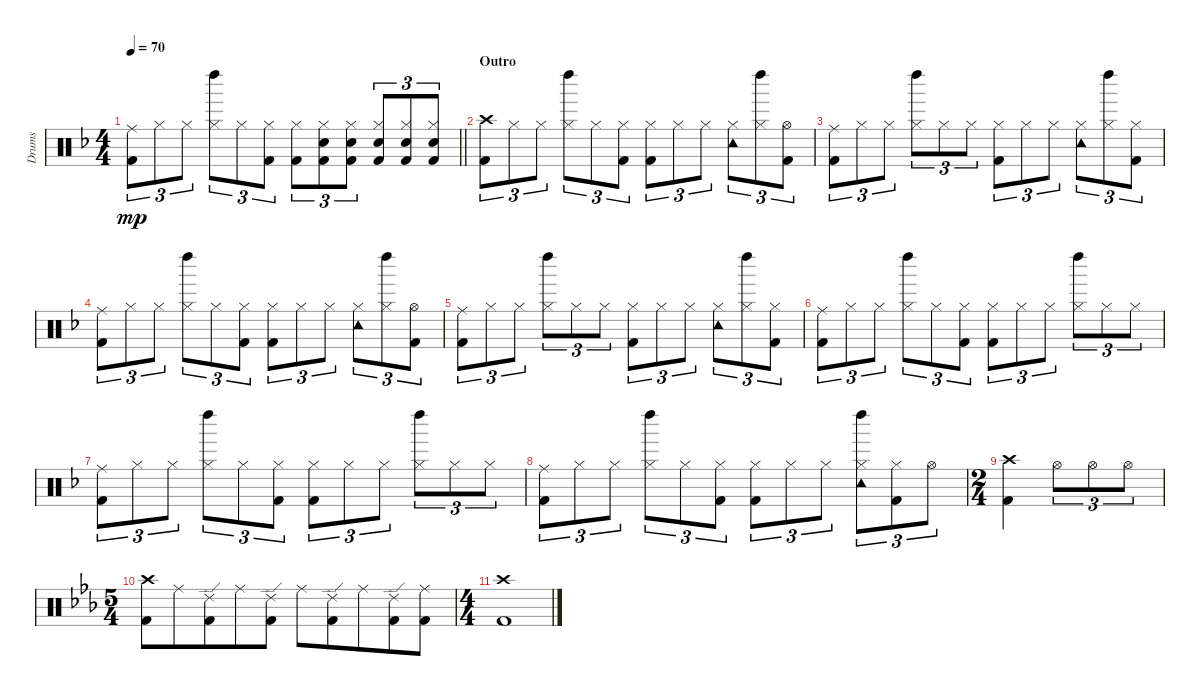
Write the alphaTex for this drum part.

\track ("Drums" "Drums") {instrument percussion}
\staff {score}
\articulation defaults
\ts (4 4)
\tempo 70
\clef neutral
\barLineRight lightlight
\ks dminor
("Ride (middle)" "Kick (hit) 2").8{tu (3 2) dy mp} "Hi-Hat (closed)".8{tu (3 2)} "Hi-Hat (closed)".8{tu (3 2)} ("Hi-Hat (closed)" "Left Maraca (hit)").8{tu (3 2)} "Hi-Hat (closed)".8{tu (3 2)} ("Hi-Hat (closed)" "Kick (hit) 2").8{tu (3 2)} ("Hi-Hat (closed)" "Kick (hit) 2").8{tu (3 2)} ("Hi-Hat (closed)" "Snare (hit) 2" "Kick (hit) 2").8{tu (3 2)} ("Hi-Hat (closed)" "Snare (hit) 2" "Kick (hit) 2").8{tu (3 2)} ("Hi-Hat (closed)" "Snare (hit) 2" "Kick (hit) 2").8{tu (3 2)} ("Hi-Hat (closed)" "Snare (hit) 2" "Kick (hit) 2").8{tu (3 2)} ("Hi-Hat (closed)" "Snare (hit) 2" "Kick (hit) 2").8{tu (3 2)} |
\section ("" "Outro")
("Crash high (hit)" "Kick (hit) 2").8{tu (3 2)} "Hi-Hat (closed)".8{tu (3 2)} "Hi-Hat (closed)".8{tu (3 2)} ("Hi-Hat (closed)" "Left Maraca (hit)").8{tu (3 2)} "Hi-Hat (closed)".8{tu (3 2)} ("Hi-Hat (closed)" "Kick (hit) 2").8{tu (3 2)} ("Hi-Hat (closed)" "Kick (hit) 2").8{tu (3 2)} "Hi-Hat (closed)".8{tu (3 2)} "Hi-Hat (closed)".8{tu (3 2)} ("Hi-Hat (closed)" "Tambourine (hit)").8{tu (3 2)} ("Hi-Hat (closed)" "Left Maraca (hit)").8{tu (3 2)} ("Hi-Hat (open)" "Kick (hit) 2").8{tu (3 2)} |
("Ride (middle)" "Kick (hit) 2").8{tu (3 2)} "Hi-Hat (closed)".8{tu (3 2)} "Hi-Hat (closed)".8{tu (3 2)} ("Hi-Hat (closed)" "Left Maraca (hit)").8{tu (3 2)} "Hi-Hat (closed)".8{tu (3 2)} "Hi-Hat (closed)".8{tu (3 2)} ("Hi-Hat (closed)" "Kick (hit) 2").8{tu (3 2)} "Hi-Hat (closed)".8{tu (3 2)} "Hi-Hat (closed)".8{tu (3 2)} ("Hi-Hat (closed)" "Tambourine (hit)").8{tu (3 2)} ("Hi-Hat (closed)" "Left Maraca (hit)").8{tu (3 2)} ("Hi-Hat (closed)" "Kick (hit) 2").8{tu (3 2)} |
("Ride (middle)" "Kick (hit) 2").8{tu (3 2)} "Hi-Hat (closed)".8{tu (3 2)} "Hi-Hat (closed)".8{tu (3 2)} ("Hi-Hat (closed)" "Left Maraca (hit)").8{tu (3 2)} "Hi-Hat (closed)".8{tu (3 2)} ("Hi-Hat (closed)" "Kick (hit) 2").8{tu (3 2)} ("Hi-Hat (closed)" "Kick (hit) 2").8{tu (3 2)} "Hi-Hat (closed)".8{tu (3 2)} "Hi-Hat (closed)".8{tu (3 2)} ("Hi-Hat (closed)" "Tambourine (hit)").8{tu (3 2)} ("Hi-Hat (closed)" "Left Maraca (hit)").8{tu (3 2)} ("Hi-Hat (open)" "Kick (hit) 2").8{tu (3 2)} |
("Ride (middle)" "Kick (hit) 2").8{tu (3 2)} "Hi-Hat (closed)".8{tu (3 2)} "Hi-Hat (closed)".8{tu (3 2)} ("Hi-Hat (closed)" "Left Maraca (hit)").8{tu (3 2)} "Hi-Hat (closed)".8{tu (3 2)} "Hi-Hat (closed)".8{tu (3 2)} ("Hi-Hat (closed)" "Kick (hit) 2").8{tu (3 2)} "Hi-Hat (closed)".8{tu (3 2)} "Hi-Hat (closed)".8{tu (3 2)} ("Hi-Hat (closed)" "Tambourine (hit)").8{tu (3 2)} ("Hi-Hat (closed)" "Left Maraca (hit)").8{tu (3 2)} ("Hi-Hat (closed)" "Kick (hit) 2").8{tu (3 2)} |
("Ride (middle)" "Kick (hit) 2").8{tu (3 2)} "Hi-Hat (closed)".8{tu (3 2)} "Hi-Hat (closed)".8{tu (3 2)} ("Hi-Hat (closed)" "Left Maraca (hit)").8{tu (3 2)} "Hi-Hat (closed)".8{tu (3 2)} ("Hi-Hat (closed)" "Kick (hit) 2").8{tu (3 2)} ("Hi-Hat (closed)" "Kick (hit) 2").8{tu (3 2)} "Hi-Hat (closed)".8{tu (3 2)} "Hi-Hat (closed)".8{tu (3 2)} ("Hi-Hat (closed)" "Left Maraca (hit)").8{tu (3 2)} "Hi-Hat (closed)".8{tu (3 2)} "Hi-Hat (closed)".8{tu (3 2)} |
("Ride (middle)" "Kick (hit) 2").8{tu (3 2)} "Hi-Hat (closed)".8{tu (3 2)} "Hi-Hat (closed)".8{tu (3 2)} ("Hi-Hat (closed)" "Left Maraca (hit)").8{tu (3 2)} "Hi-Hat (closed)".8{tu (3 2)} ("Hi-Hat (closed)" "Kick (hit) 2").8{tu (3 2)} ("Hi-Hat (closed)" "Kick (hit) 2").8{tu (3 2)} "Hi-Hat (closed)".8{tu (3 2)} "Hi-Hat (closed)".8{tu (3 2)} ("Hi-Hat (closed)" "Left Maraca (hit)").8{tu (3 2)} "Hi-Hat (closed)".8{tu (3 2)} "Hi-Hat (closed)".8{tu (3 2)} |
("Ride (middle)" "Kick (hit) 2").8{tu (3 2)} "Hi-Hat (closed)".8{tu (3 2)} "Hi-Hat (closed)".8{tu (3 2)} ("Hi-Hat (closed)" "Left Maraca (hit)").8{tu (3 2)} "Hi-Hat (closed)".8{tu (3 2)} ("Hi-Hat (closed)" "Kick (hit) 2").8{tu (3 2)} ("Hi-Hat (closed)" "Kick (hit) 2").8{tu (3 2)} "Hi-Hat (closed)".8{tu (3 2)} "Hi-Hat (closed)".8{tu (3 2)} ("Hi-Hat (closed)" "Tambourine (hit)" "Left Maraca (hit)").8{tu (3 2)} ("Hi-Hat (closed)" "Kick (hit) 2").8{tu (3 2)} "Hi-Hat (open)".8{tu (3 2)} |
\ts (2 4)
("Crash high (hit)" "Kick (hit) 2").4 "Hi-Hat (open)".8{tu (3 2)} "Hi-Hat (open)".8{tu (3 2)} "Hi-Hat (open)".8{tu (3 2)} |
\ts (5 4)
\ks eb
("Crash high (hit)" "Kick (hit) 2").8{beam merge} "Ride (middle)".8{beam merge} ("Ride (edge) 2" "Kick (hit) 2").8{beam merge} "Ride (middle)".8{beam merge} ("Ride (edge) 2" "Kick (hit) 2").8{beam split} "Ride (middle)".8{beam merge} ("Ride (edge) 2" "Kick (hit) 2").8{beam merge} "Ride (middle)".8{beam merge} ("Ride (edge) 2" "Kick (hit) 2").8{beam merge} ("Ride (middle)" "Kick (hit) 2").8 |
\ts (4 4)
("Crash high (hit)" "Kick (hit) 2").1
